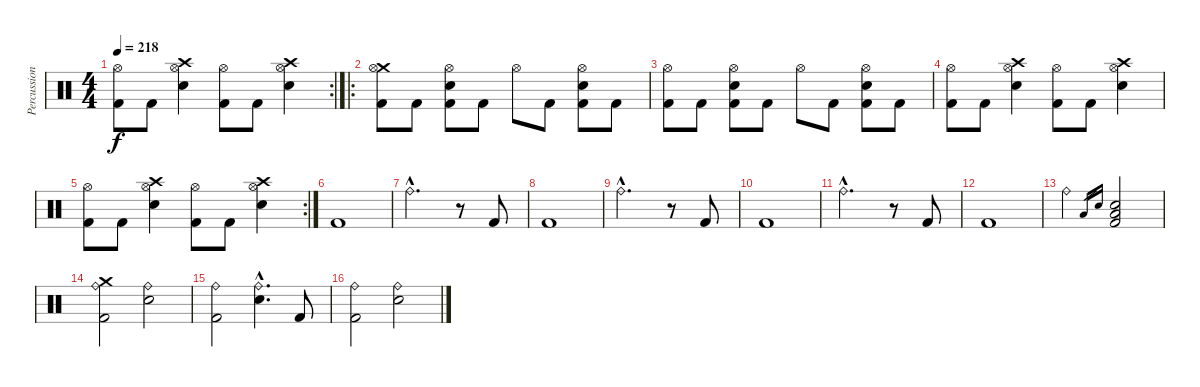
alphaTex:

\track ("Percussion" "Percussion") {instrument percussion}
\staff {score}
\articulation defaults
\rc 2
\ts (4 4)
\tempo 218
\clef neutral
\ks c
("Hi-Hat (open)" "Kick (hit) 2").8{dy f} "Kick (hit) 2".8 ("Crash high (hit)" "Hi-Hat (open)" "Electric Snare (hit)").4 ("Hi-Hat (open)" "Kick (hit) 2").8 "Kick (hit) 2".8 ("Crash high (hit)" "Hi-Hat (open)" "Electric Snare (hit)").4 |
\ro
("Crash medium (hit)" "Hi-Hat (open)" "Kick (hit) 2").8 "Kick (hit) 2".8 ("Hi-Hat (open)" "Electric Snare (hit)" "Kick (hit) 2").8 "Kick (hit) 2".8 "Hi-Hat (open)".8 "Kick (hit) 2".8 ("Hi-Hat (open)" "Electric Snare (hit)" "Kick (hit) 2").8 "Kick (hit) 2".8 |
("Hi-Hat (open)" "Kick (hit) 2").8 "Kick (hit) 2".8 ("Hi-Hat (open)" "Electric Snare (hit)" "Kick (hit) 2").8 "Kick (hit) 2".8 "Hi-Hat (open)".8 "Kick (hit) 2".8 ("Hi-Hat (open)" "Electric Snare (hit)" "Kick (hit) 2").8 "Kick (hit) 2".8 |
("Hi-Hat (open)" "Kick (hit) 2").8 "Kick (hit) 2".8 ("Crash high (hit)" "Hi-Hat (open)" "Electric Snare (hit)").4 ("Hi-Hat (open)" "Kick (hit) 2").8 "Kick (hit) 2".8 ("Crash high (hit)" "Hi-Hat (open)" "Electric Snare (hit)").4 |
\rc 2
("Hi-Hat (open)" "Kick (hit) 2").8 "Kick (hit) 2".8 ("Crash high (hit)" "Hi-Hat (open)" "Electric Snare (hit)").4 ("Hi-Hat (open)" "Kick (hit) 2").8 "Kick (hit) 2".8 ("Crash high (hit)" "Hi-Hat (open)" "Electric Snare (hit)").4 |
"Kick (hit) 2".1 |
"Ride (bell)"{hac}.2{d} r.8 "Kick (hit) 2".8 |
"Kick (hit) 2".1 |
"Ride (bell)"{hac}.2{d} r.8 "Kick (hit) 2".8 |
"Kick (hit) 2".1 |
"Ride (bell)"{hac}.2{d} r.8 "Kick (hit) 2".8 |
"Kick (hit) 2".1 |
"Ride (bell)".2 "Low Floor Tom (hit)".16{gr} "Electric Snare (hit)".16{gr} ("Low Floor Tom (hit)" "Electric Snare (hit)" "Kick (hit) 2").2 |
("Crash medium (hit)" "Ride (bell)" "Kick (hit) 2").2 ("Ride (bell)" "Electric Snare (hit)").2 |
("Ride (bell)" "Kick (hit) 2").2 ("Ride (bell)"{hac} "Electric Snare (hit)"{hac}).4{d} "Kick (hit) 2".8 |
("Ride (bell)" "Kick (hit) 2").2 ("Ride (bell)" "Electric Snare (hit)").2
